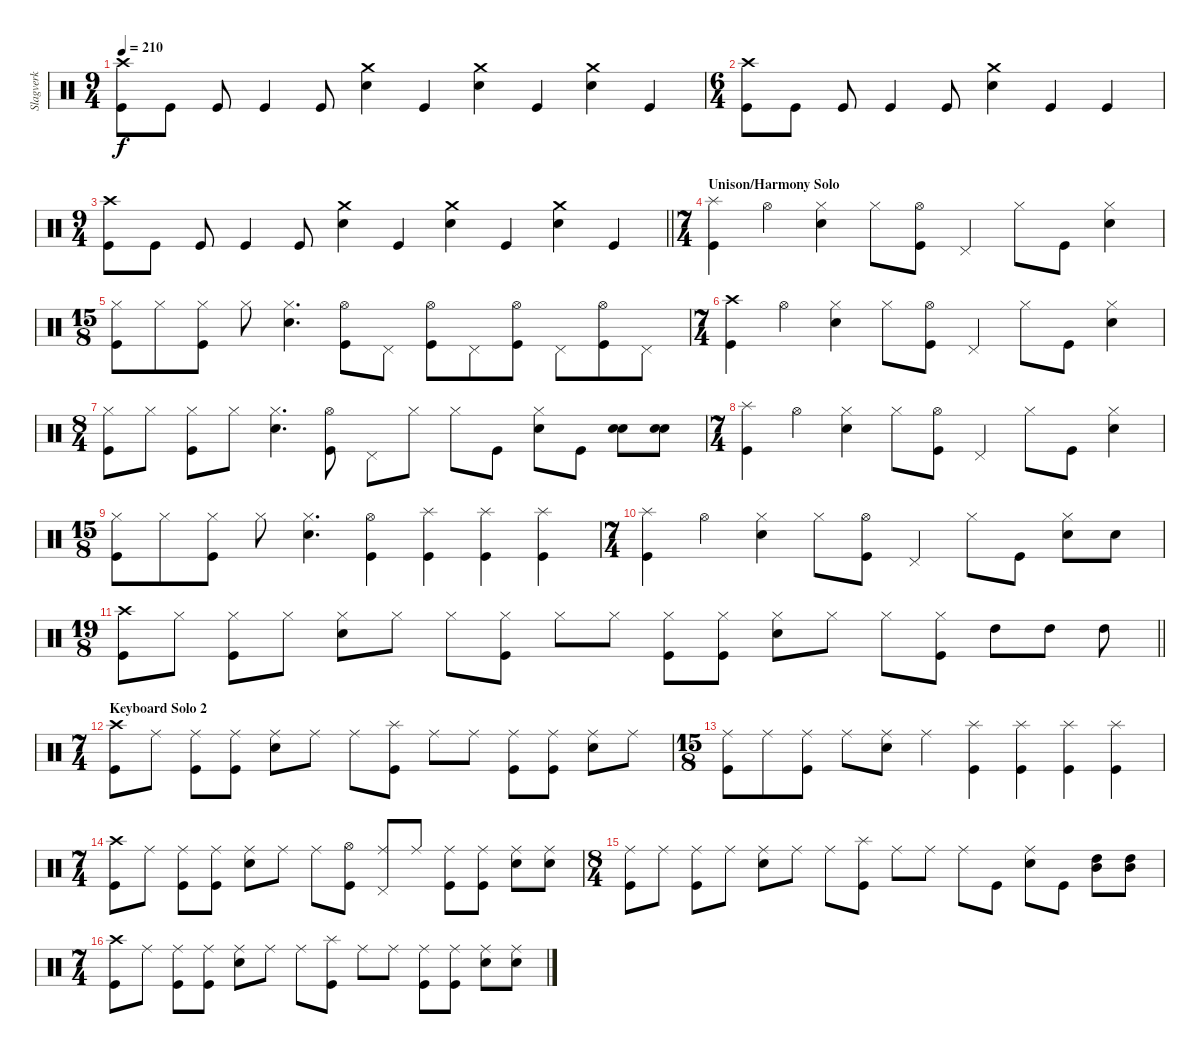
\track ("Slagverk" "Slagverk") {instrument percussion}
\staff {score}
\articulation defaults
\ts (9 4)
\tempo 210
\clef neutral
\ks c
("Crash high (hit)" "Kick (hit)").8{dy f} "Kick (hit)".8 "Kick (hit)".8 "Kick (hit)".4 "Kick (hit)".8 ("Crash medium (hit)" "Electric Snare (hit)").4 "Kick (hit)".4 ("Crash medium (hit)" "Electric Snare (hit)").4 "Kick (hit)".4 ("Crash medium (hit)" "Electric Snare (hit)").4 "Kick (hit)".4 |
\ts (6 4)
("Crash high (hit)" "Kick (hit)").8 "Kick (hit)".8 "Kick (hit)".8 "Kick (hit)".4 "Kick (hit)".8 ("Crash medium (hit)" "Electric Snare (hit)").4 "Kick (hit)".4 "Kick (hit)".4 |
\ts (9 4)
\barLineRight lightlight
("Crash high (hit)" "Kick (hit)").8 "Kick (hit)".8 "Kick (hit)".8 "Kick (hit)".4 "Kick (hit)".8 ("Crash medium (hit)" "Electric Snare (hit)").4 "Kick (hit)".4 ("Crash medium (hit)" "Electric Snare (hit)").4 "Kick (hit)".4 ("Crash medium (hit)" "Electric Snare (hit)").4 "Kick (hit)".4 |
\ts (7 4)
\section ("" "Unison/Harmony Solo")
("Splash (hit)" "Kick (hit)").4 "Hi-Hat (open)".4 ("Hi-Hat (closed)" "Electric Snare (hit)").4 "Hi-Hat (closed)".8 ("Hi-Hat (open)" "Kick (hit)").8 "Pedal Hi-Hat (hit)".4 "Hi-Hat (closed)".8 "Kick (hit)".8 ("Hi-Hat (closed)" "Electric Snare (hit)").4 |
\ts (15 8)
("Hi-Hat (closed)" "Kick (hit)").8 "Hi-Hat (closed)".8 ("Hi-Hat (closed)" "Kick (hit)").8 "Hi-Hat (closed)".8 ("Hi-Hat (closed)" "Electric Snare (hit)").4{d} ("Hi-Hat (open)" "Kick (hit)").8 "Pedal Hi-Hat (hit)".8 ("Hi-Hat (open)" "Kick (hit)").8 "Pedal Hi-Hat (hit)".8 ("Hi-Hat (open)" "Kick (hit)").8 "Pedal Hi-Hat (hit)".8 ("Hi-Hat (open)" "Kick (hit)").8 "Pedal Hi-Hat (hit)".8 |
\ts (7 4)
("Crash high (hit)" "Kick (hit)").4 "Hi-Hat (open)".4 ("Hi-Hat (closed)" "Electric Snare (hit)").4 "Hi-Hat (closed)".8 ("Hi-Hat (open)" "Kick (hit)").8 "Pedal Hi-Hat (hit)".4 "Hi-Hat (closed)".8 "Kick (hit)".8 ("Hi-Hat (closed)" "Electric Snare (hit)").4 |
\ts (8 4)
("Hi-Hat (closed)" "Kick (hit)").8 "Hi-Hat (closed)".8 ("Hi-Hat (closed)" "Kick (hit)").8 "Hi-Hat (closed)".8 ("Hi-Hat (closed)" "Electric Snare (hit)").4{d} ("Hi-Hat (open)" "Kick (hit)").8 "Pedal Hi-Hat (hit)".8 "Hi-Hat (closed)".8 "Hi-Hat (closed)".8 "Kick (hit)".8 ("Hi-Hat (closed)" "Electric Snare (hit)").8 "Kick (hit)".8 ("Electric Snare (hit)" "Electric Snare (hit)").8 ("Electric Snare (hit)" "Electric Snare (hit)").8 |
\ts (7 4)
("Splash (hit)" "Kick (hit)").4 "Hi-Hat (open)".4 ("Hi-Hat (closed)" "Electric Snare (hit)").4 "Hi-Hat (closed)".8 ("Hi-Hat (open)" "Kick (hit)").8 "Pedal Hi-Hat (hit)".4 "Hi-Hat (closed)".8 "Kick (hit)".8 ("Hi-Hat (closed)" "Electric Snare (hit)").4 |
\ts (15 8)
("Hi-Hat (closed)" "Kick (hit)").8 "Hi-Hat (closed)".8 ("Hi-Hat (closed)" "Kick (hit)").8 "Hi-Hat (closed)".8 ("Hi-Hat (closed)" "Electric Snare (hit)").4{d} ("Hi-Hat (open)" "Kick (hit)").4 ("Splash (hit)" "Kick (hit)").4 ("Splash (hit)" "Kick (hit)").4 ("Splash (hit)" "Kick (hit)").4 |
\ts (7 4)
("Splash (hit)" "Kick (hit)").4 "Hi-Hat (open)".4 ("Hi-Hat (closed)" "Electric Snare (hit)").4 "Hi-Hat (closed)".8 ("Hi-Hat (open)" "Kick (hit)").8 "Pedal Hi-Hat (hit)".4 "Hi-Hat (closed)".8 "Kick (hit)".8 ("Hi-Hat (closed)" "Electric Snare (hit)").8 "Electric Snare (hit)".8 |
\ts (19 8)
\barLineRight lightlight
("Crash high (hit)" "Kick (hit)").8 "Hi-Hat (closed)".8 ("Hi-Hat (closed)" "Kick (hit)").8 "Hi-Hat (closed)".8 ("Hi-Hat (closed)" "Electric Snare (hit)").8 "Hi-Hat (closed)".8 "Hi-Hat (closed)".8 ("Hi-Hat (closed)" "Kick (hit)").8 "Hi-Hat (closed)".8 "Hi-Hat (closed)".8 ("Hi-Hat (closed)" "Kick (hit)").8 ("Hi-Hat (closed)" "Kick (hit)").8 ("Hi-Hat (closed)" "Electric Snare (hit)").8 "Hi-Hat (closed)".8 "Hi-Hat (closed)".8 ("Hi-Hat (closed)" "Kick (hit)").8 "High Tom (hit)".8 "High Tom (hit)".8 "High Tom (hit)".8 |
\ts (7 4)
\section ("" "Keyboard Solo 2")
("Crash high (hit)" "Kick (hit)").8 "Ride (middle)".8 ("Ride (middle)" "Kick (hit)").8 ("Ride (middle)" "Kick (hit)").8 ("Ride (middle)" "Electric Snare (hit)").8 "Ride (middle)".8 "Ride (middle)".8 ("Splash (hit)" "Kick (hit)").8 "Ride (middle)".8 "Ride (middle)".8 ("Ride (middle)" "Kick (hit)").8 ("Ride (middle)" "Kick (hit)").8 ("Ride (middle)" "Electric Snare (hit)").8 "Ride (middle)".8 |
\ts (15 8)
("Ride (middle)" "Kick (hit)").8 "Ride (middle)".8 ("Ride (middle)" "Kick (hit)").8 "Ride (middle)".8 ("Ride (middle)" "Electric Snare (hit)").8 "Ride (middle)".4 ("Splash (hit)" "Kick (hit)").4 ("Splash (hit)" "Kick (hit)").4 ("Splash (hit)" "Kick (hit)").4 ("Splash (hit)" "Kick (hit)").4 |
\ts (7 4)
("Crash high (hit)" "Kick (hit)").8 "Ride (middle)".8 ("Ride (middle)" "Kick (hit)").8 ("Ride (middle)" "Kick (hit)").8 ("Ride (middle)" "Electric Snare (hit)").8 "Ride (middle)".8 "Ride (middle)".8 ("Hi-Hat (open)" "Kick (hit)").8 ("Ride (middle)" "Pedal Hi-Hat (hit)").8 "Ride (middle)".8 ("Ride (middle)" "Kick (hit)").8 ("Ride (middle)" "Kick (hit)").8 ("Ride (middle)" "Electric Snare (hit)").8 ("Ride (middle)" "Electric Snare (hit)").8 |
\ts (8 4)
("Ride (middle)" "Kick (hit)").8 "Ride (middle)".8 ("Ride (middle)" "Kick (hit)").8 "Ride (middle)".8 ("Ride (middle)" "Electric Snare (hit)").8 "Ride (middle)".8 "Ride (middle)".8 ("Splash (hit)" "Kick (hit)").8 "Ride (middle)".8 "Ride (middle)".8 "Ride (middle)".8 "Kick (hit)".8 ("Ride (middle)" "Electric Snare (hit)").8 "Kick (hit)".8 ("High Tom (hit)" "Mid Tom (hit)").8 ("High Tom (hit)" "Mid Tom (hit)").8 |
\ts (7 4)
("Crash high (hit)" "Kick (hit)").8 "Ride (middle)".8 ("Ride (middle)" "Kick (hit)").8 ("Ride (middle)" "Kick (hit)").8 ("Ride (middle)" "Electric Snare (hit)").8 "Ride (middle)".8 "Ride (middle)".8 ("Splash (hit)" "Kick (hit)").8 "Ride (middle)".8 "Ride (middle)".8 ("Ride (middle)" "Kick (hit)").8 ("Ride (middle)" "Kick (hit)").8 ("Ride (middle)" "Electric Snare (hit)").8 ("Ride (middle)" "Electric Snare (hit)").8
